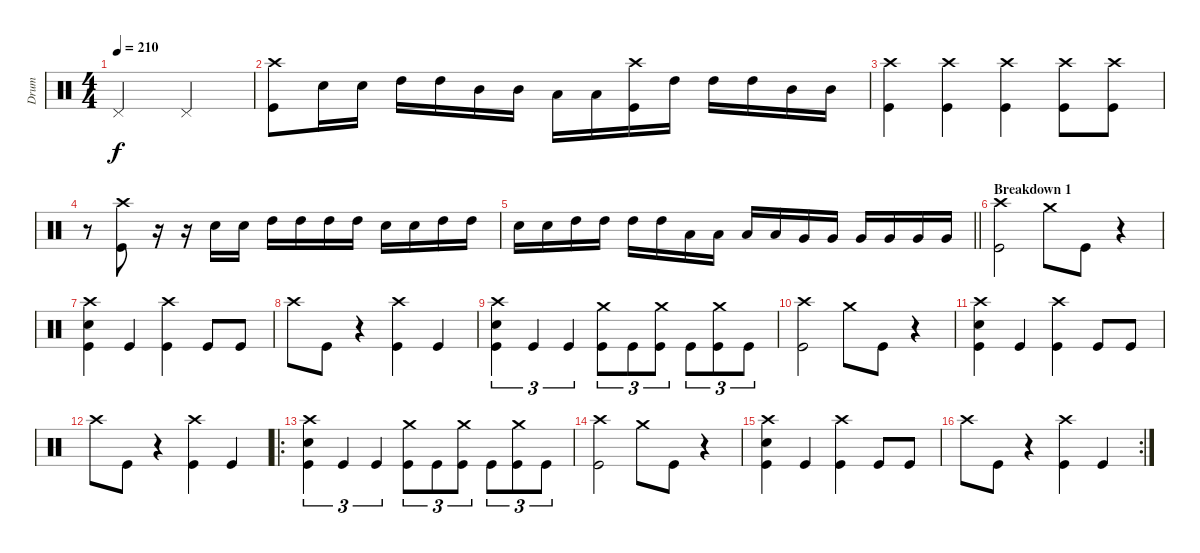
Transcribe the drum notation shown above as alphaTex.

\track ("Drum" "Drum") {instrument percussion}
\staff {score}
\articulation defaults
\ts (4 4)
\tempo 210
\clef neutral
\ks c "Pedal Hi-Hat (hit)".2{dy f} "Pedal Hi-Hat (hit)".2
|
("Crash high (hit)" "Kick (hit)").8 "Snare (hit) 2".16 "Snare (hit) 2".16 "High Tom (hit)".16 "High Tom (hit)".16 "Mid Tom (hit)".16 "Mid Tom (hit)".16 "Low Tom (hit)".16 "Low Tom (hit)".16 ("Crash high (hit)" "Kick (hit)").16 "High Tom (hit)".16 "High Tom (hit)".16 "High Tom (hit)".16 "Mid Tom (hit)".16 "Mid Tom (hit)".16 |
("Crash high (hit)" "Kick (hit)").4 ("Crash high (hit)" "Kick (hit)").4 ("Crash high (hit)" "Kick (hit)").4 ("Crash high (hit)" "Kick (hit)").8 ("Crash high (hit)" "Kick (hit)").8 |
r.8 ("Crash high (hit)" "Kick (hit)").8 r.16 r.16 "Snare (hit) 2".16 "Snare (hit) 2".16 "High Tom (hit)".16 "High Tom (hit)".16 "High Tom (hit)".16 "High Tom (hit)".16 "Snare (hit) 2".16 "Snare (hit) 2".16 "High Tom (hit)".16 "High Tom (hit)".16 |
\barLineRight lightlight "Snare (hit) 2".16 "Snare (hit) 2".16 "High Tom (hit)".16 "High Tom (hit)".16 "High Tom (hit)".16 "High Tom (hit)".16 "Low Tom (hit)".16 "Low Tom (hit)".16 "Low Tom (hit)".16 "Low Tom (hit)".16 "Very Low Tom (hit)".16 "Very Low Tom (hit)".16 "Very Low Tom (hit)".16 "Very Low Tom (hit)".16 "Very Low Tom (hit)".16 "Very Low Tom (hit)".16
|
\section ("" "Breakdown 1")
("Crash high (hit)" "Kick (hit)").2 "Crash medium (hit)".8 "Kick (hit)".8 r.4 |
("Crash high (hit)" "Snare (hit) 2" "Kick (hit)").4 "Kick (hit)".4 ("Crash high (hit)" "Kick (hit)").4 "Kick (hit)".8 "Kick (hit)".8 |
"Crash high (hit)".8 "Kick (hit)".8 r.4 ("Crash high (hit)" "Kick (hit)").4 "Kick (hit)".4 |
("Crash high (hit)" "Snare (hit) 2" "Kick (hit)").4{tu (3 2)} "Kick (hit)".4{tu (3 2)} "Kick (hit)".4{tu (3 2)} ("Crash medium (hit)" "Kick (hit)").8{tu (3 2)} "Kick (hit)".8{tu (3 2)} ("Crash medium (hit)" "Kick (hit)").8{tu (3 2)} "Kick (hit)".8{tu (3 2)} ("Crash medium (hit)" "Kick (hit)").8{tu (3 2)} "Kick (hit)".8{tu (3 2)} |
("Crash high (hit)" "Kick (hit)").2 "Crash medium (hit)".8 "Kick (hit)".8 r.4 |
("Crash high (hit)" "Snare (hit) 2" "Kick (hit)").4 "Kick (hit)".4 ("Crash high (hit)" "Kick (hit)").4 "Kick (hit)".8 "Kick (hit)".8 |
"Crash high (hit)".8 "Kick (hit)".8 r.4 ("Crash high (hit)" "Kick (hit)").4 "Kick (hit)".4 |
\ro
("Crash high (hit)" "Snare (hit) 2" "Kick (hit)").4{tu (3 2)} "Kick (hit)".4{tu (3 2)} "Kick (hit)".4{tu (3 2)} ("Crash medium (hit)" "Kick (hit)").8{tu (3 2)} "Kick (hit)".8{tu (3 2)} ("Crash medium (hit)" "Kick (hit)").8{tu (3 2)} "Kick (hit)".8{tu (3 2)} ("Crash medium (hit)" "Kick (hit)").8{tu (3 2)} "Kick (hit)".8{tu (3 2)} |
("Crash high (hit)" "Kick (hit)").2 "Crash medium (hit)".8 "Kick (hit)".8 r.4 |
("Crash high (hit)" "Snare (hit) 2" "Kick (hit)").4 "Kick (hit)".4 ("Crash high (hit)" "Kick (hit)").4 "Kick (hit)".8 "Kick (hit)".8 |
\rc 2 "Crash high (hit)".8 "Kick (hit)".8
r.4 ("Crash high (hit)" "Kick (hit)").4 "Kick (hit)".4
